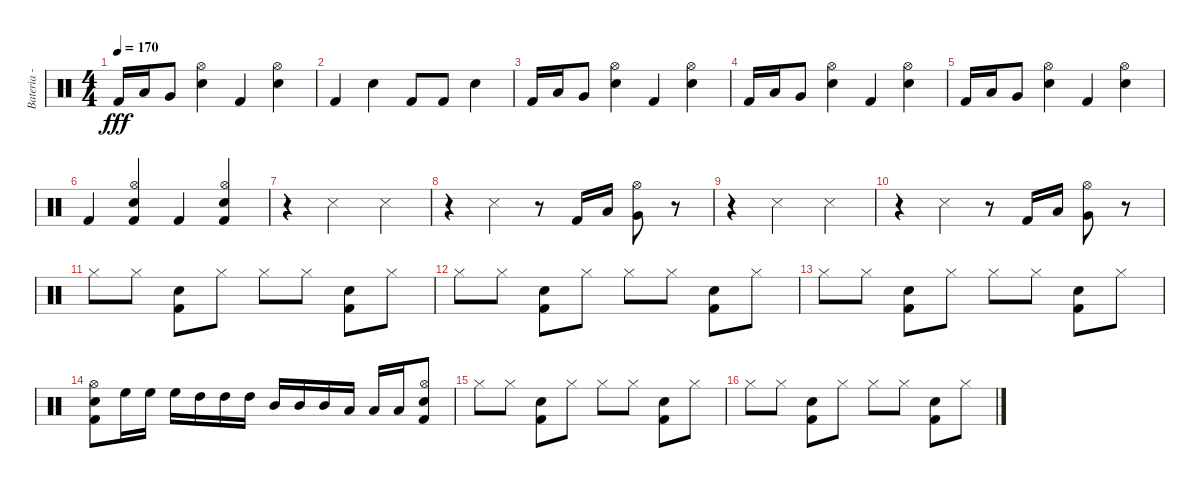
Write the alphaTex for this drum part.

\track ("Bateria - Larzon" "Bateria - ") {instrument percussion}
\staff {score}
\articulation defaults
\ts (4 4)
\tempo 170
\clef neutral
\ks c "Kick (hit) 2".16{dy fff} "Low Floor Tom (hit)".16 "Very Low Tom (hit)".8
("Hi-Hat (open)" "Snare (hit) 2").4 "Kick (hit) 2".4 ("Hi-Hat (open)" "Snare (hit) 2").4 |
"Kick (hit) 2".4 "Snare (hit) 2".4 "Kick (hit) 2".8 "Kick (hit) 2".8 "Snare (hit) 2".4 |
"Kick (hit) 2".16 "Low Floor Tom (hit)".16 "Very Low Tom (hit)".8 ("Hi-Hat (open)" "Snare (hit) 2").4 "Kick (hit) 2".4 ("Hi-Hat (open)" "Snare (hit) 2").4 |
"Kick (hit) 2".16 "Low Floor Tom (hit)".16 "Very Low Tom (hit)".8 ("Hi-Hat (open)" "Snare (hit) 2").4 "Kick (hit) 2".4 ("Hi-Hat (open)" "Snare (hit) 2").4 |
"Kick (hit) 2".16 "Low Floor Tom (hit)".16 "Very Low Tom (hit)".8 ("Hi-Hat (open)" "Snare (hit) 2").4 "Kick (hit) 2".4 ("Hi-Hat (open)" "Snare (hit) 2").4 |
"Kick (hit) 2".4 ("Hi-Hat (open)" "Snare (hit) 2" "Kick (hit) 2").4 "Kick (hit) 2".4 ("Hi-Hat (open)" "Snare (hit) 2" "Kick (hit) 2").4 |
r.4 "Snare (side stick) 3".2 "Snare (side stick) 3".4 |
r.4 "Snare (side stick) 3".4 r.8 "Kick (hit) 2".16 "Low Floor Tom (hit)".16 ("Hi-Hat (open)" "Very Low Tom (hit)").8 r.8 |
r.4 "Snare (side stick) 3".2 "Snare (side stick) 3".4 |
r.4 "Snare (side stick) 3".4 r.8 "Kick (hit) 2".16 "Low Floor Tom (hit)".16 ("Hi-Hat (open)" "Very Low Tom (hit)").8 r.8 |
"Hi-Hat (closed)".8 "Hi-Hat (closed)".8 ("Snare (hit) 2" "Kick (hit) 2").8 "Hi-Hat (closed)".8 "Hi-Hat (closed)".8 "Hi-Hat (closed)".8 ("Snare (hit) 2" "Kick (hit) 2").8 "Hi-Hat (closed)".8 |
"Hi-Hat (closed)".8 "Hi-Hat (closed)".8 ("Snare (hit) 2" "Kick (hit) 2").8 "Hi-Hat (closed)".8 "Hi-Hat (closed)".8 "Hi-Hat (closed)".8 ("Snare (hit) 2" "Kick (hit) 2").8 "Hi-Hat (closed)".8 |
"Hi-Hat (closed)".8 "Hi-Hat (closed)".8 ("Snare (hit) 2" "Kick (hit) 2").8 "Hi-Hat (closed)".8 "Hi-Hat (closed)".8 "Hi-Hat (closed)".8 ("Snare (hit) 2" "Kick (hit) 2").8 "Hi-Hat (closed)".8 |
("Hi-Hat (open)" "Snare (hit) 2" "Kick (hit) 2").8 "High Floor Tom (hit)".16 "High Floor Tom (hit)".16 "High Floor Tom (hit)".16 "High Tom (hit)".16 "High Tom (hit)".16 "High Tom (hit)".16 "Mid Tom (hit)".16 "Mid Tom (hit)".16 "Mid Tom (hit)".16 "Low Tom (hit)".16 "Low Tom (hit)".16 "Low Tom (hit)".16 ("Hi-Hat (open)" "Snare (hit) 2" "Kick (hit) 2").8 |
"Hi-Hat (closed)".8 "Hi-Hat (closed)".8 ("Snare (hit) 2" "Kick (hit) 2").8 "Hi-Hat (closed)".8 "Hi-Hat (closed)".8 "Hi-Hat (closed)".8 ("Snare (hit) 2" "Kick (hit) 2").8 "Hi-Hat (closed)".8 |
"Hi-Hat (closed)".8 "Hi-Hat (closed)".8 ("Snare (hit) 2" "Kick (hit) 2").8 "Hi-Hat (closed)".8 "Hi-Hat (closed)".8 "Hi-Hat (closed)".8 ("Snare (hit) 2" "Kick (hit) 2").8 "Hi-Hat (closed)".8
